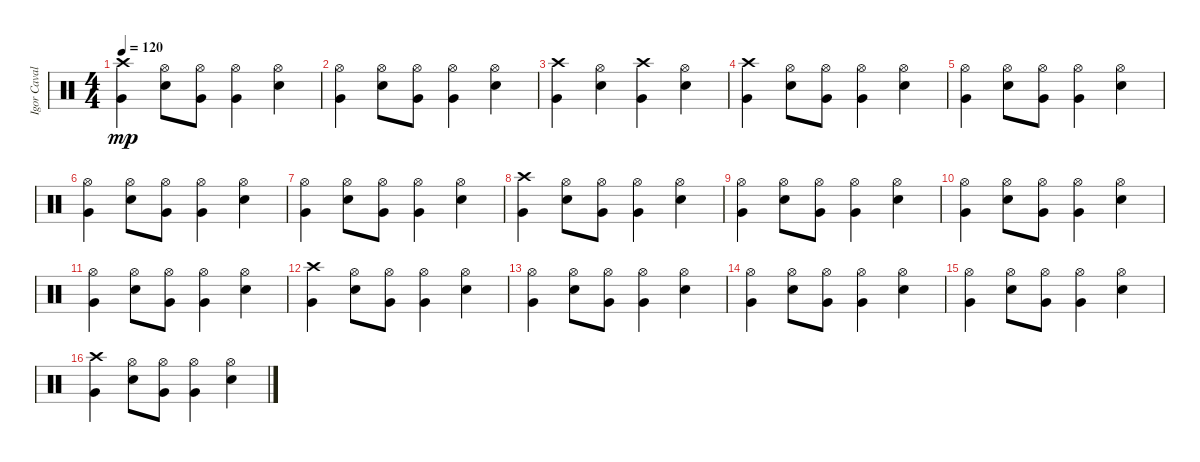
\track ("Igor Cavalera" "Igor Caval") {instrument percussion}
\staff {score}
\articulation defaults
\ts (4 4)
\tempo 120
\clef neutral
\ks c
("Crash high (hit)" "Very Low Tom (hit)").4{dy mp} ("Hi-Hat (open)" "Snare (hit) 2").8 ("Hi-Hat (open)" "Very Low Tom (hit)").8 ("Hi-Hat (open)" "Very Low Tom (hit)").4 ("Hi-Hat (open)" "Snare (hit) 2").4 |
("Hi-Hat (open)" "Very Low Tom (hit)").4 ("Hi-Hat (open)" "Snare (hit) 2").8 ("Hi-Hat (open)" "Very Low Tom (hit)").8 ("Hi-Hat (open)" "Very Low Tom (hit)").4 ("Hi-Hat (open)" "Snare (hit) 2").4 |
("Crash high (hit)" "Very Low Tom (hit)").4 ("Hi-Hat (open)" "Snare (hit) 2").4 ("Crash high (hit)" "Very Low Tom (hit)").4 ("Hi-Hat (open)" "Snare (hit) 2").4 |
("Crash high (hit)" "Very Low Tom (hit)").4 ("Hi-Hat (open)" "Snare (hit) 2").8 ("Hi-Hat (open)" "Very Low Tom (hit)").8 ("Hi-Hat (open)" "Very Low Tom (hit)").4 ("Hi-Hat (open)" "Snare (hit) 2").4 |
("Hi-Hat (open)" "Very Low Tom (hit)").4 ("Hi-Hat (open)" "Snare (hit) 2").8 ("Hi-Hat (open)" "Very Low Tom (hit)").8 ("Hi-Hat (open)" "Very Low Tom (hit)").4 ("Hi-Hat (open)" "Snare (hit) 2").4 |
("Hi-Hat (open)" "Very Low Tom (hit)").4 ("Hi-Hat (open)" "Snare (hit) 2").8 ("Hi-Hat (open)" "Very Low Tom (hit)").8 ("Hi-Hat (open)" "Very Low Tom (hit)").4 ("Hi-Hat (open)" "Snare (hit) 2").4 |
("Hi-Hat (open)" "Very Low Tom (hit)").4 ("Hi-Hat (open)" "Snare (hit) 2").8 ("Hi-Hat (open)" "Very Low Tom (hit)").8 ("Hi-Hat (open)" "Very Low Tom (hit)").4 ("Hi-Hat (open)" "Snare (hit) 2").4 |
("Crash high (hit)" "Very Low Tom (hit)").4 ("Hi-Hat (open)" "Snare (hit) 2").8 ("Hi-Hat (open)" "Very Low Tom (hit)").8 ("Hi-Hat (open)" "Very Low Tom (hit)").4 ("Hi-Hat (open)" "Snare (hit) 2").4 |
("Hi-Hat (open)" "Very Low Tom (hit)").4 ("Hi-Hat (open)" "Snare (hit) 2").8 ("Hi-Hat (open)" "Very Low Tom (hit)").8 ("Hi-Hat (open)" "Very Low Tom (hit)").4 ("Hi-Hat (open)" "Snare (hit) 2").4 |
("Hi-Hat (open)" "Very Low Tom (hit)").4 ("Hi-Hat (open)" "Snare (hit) 2").8 ("Hi-Hat (open)" "Very Low Tom (hit)").8 ("Hi-Hat (open)" "Very Low Tom (hit)").4 ("Hi-Hat (open)" "Snare (hit) 2").4 |
("Hi-Hat (open)" "Very Low Tom (hit)").4 ("Hi-Hat (open)" "Snare (hit) 2").8 ("Hi-Hat (open)" "Very Low Tom (hit)").8 ("Hi-Hat (open)" "Very Low Tom (hit)").4 ("Hi-Hat (open)" "Snare (hit) 2").4 |
("Crash high (hit)" "Very Low Tom (hit)").4 ("Hi-Hat (open)" "Snare (hit) 2").8 ("Hi-Hat (open)" "Very Low Tom (hit)").8 ("Hi-Hat (open)" "Very Low Tom (hit)").4 ("Hi-Hat (open)" "Snare (hit) 2").4 |
("Hi-Hat (open)" "Very Low Tom (hit)").4 ("Hi-Hat (open)" "Snare (hit) 2").8 ("Hi-Hat (open)" "Very Low Tom (hit)").8 ("Hi-Hat (open)" "Very Low Tom (hit)").4 ("Hi-Hat (open)" "Snare (hit) 2").4 |
("Hi-Hat (open)" "Very Low Tom (hit)").4 ("Hi-Hat (open)" "Snare (hit) 2").8 ("Hi-Hat (open)" "Very Low Tom (hit)").8 ("Hi-Hat (open)" "Very Low Tom (hit)").4 ("Hi-Hat (open)" "Snare (hit) 2").4 |
("Hi-Hat (open)" "Very Low Tom (hit)").4 ("Hi-Hat (open)" "Snare (hit) 2").8 ("Hi-Hat (open)" "Very Low Tom (hit)").8 ("Hi-Hat (open)" "Very Low Tom (hit)").4 ("Hi-Hat (open)" "Snare (hit) 2").4 |
("Crash high (hit)" "Very Low Tom (hit)").4 ("Hi-Hat (open)" "Snare (hit) 2").8 ("Hi-Hat (open)" "Very Low Tom (hit)").8 ("Hi-Hat (open)" "Very Low Tom (hit)").4 ("Hi-Hat (open)" "Snare (hit) 2").4
